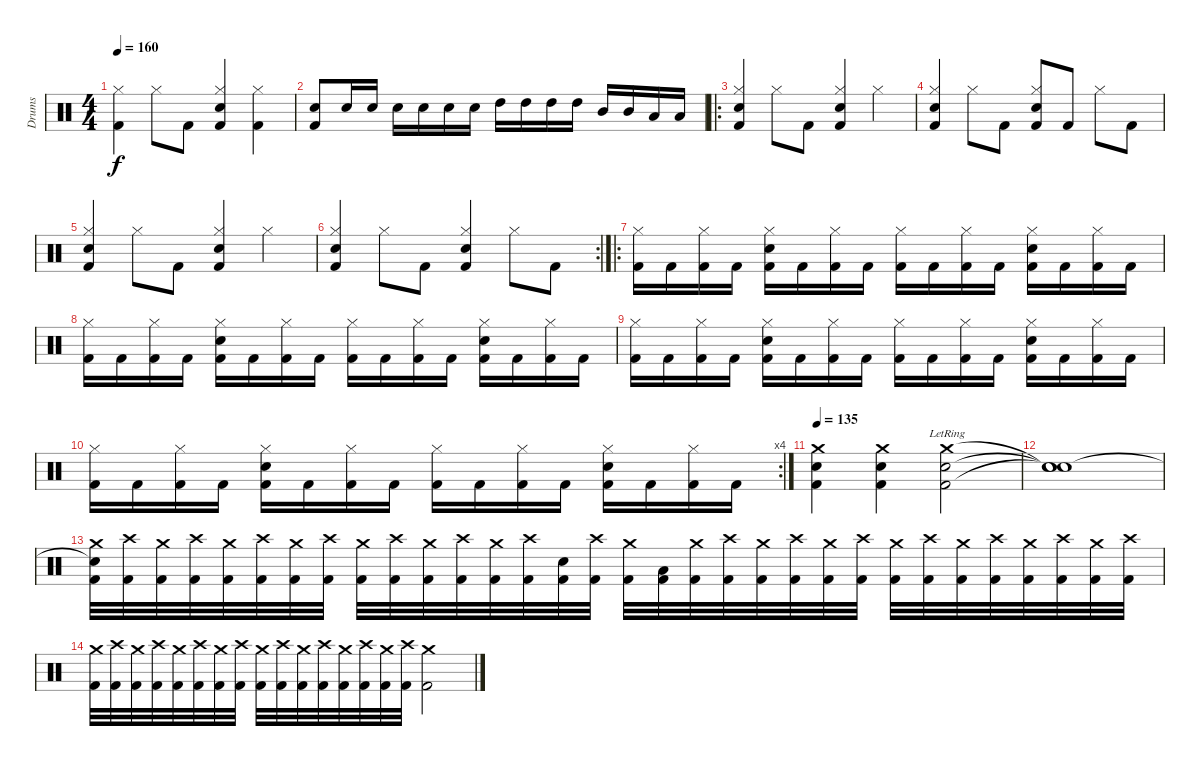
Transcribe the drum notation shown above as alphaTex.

\track ("Drums" "Drums") {instrument percussion}
\staff {score}
\articulation defaults
\ts (4 4)
\tempo 160
\clef neutral
\ks c
("Kick (hit) 2" "Hi-Hat (closed)").4{dy f} "Hi-Hat (closed)".8 "Kick (hit) 2".8 ("Kick (hit) 2" "Snare (hit) 2" "Hi-Hat (closed)").4 ("Kick (hit) 2" "Hi-Hat (closed)").4 |
("Kick (hit) 2" "Snare (hit) 2").8 "Snare (hit) 2".16 "Snare (hit) 2".16 "Snare (hit) 2".16 "Snare (hit) 2".16 "Snare (hit) 2".16 "Snare (hit) 2".16 "High Tom (hit)".16 "High Tom (hit)".16 "High Tom (hit)".16 "High Tom (hit)".16 "Mid Tom (hit)".16 "Mid Tom (hit)".16 "Low Tom (hit)".16 "Low Tom (hit)".16 |
\ro
("Kick (hit) 2" "Snare (hit) 2" "Hi-Hat (closed)").4 "Hi-Hat (closed)".8 "Kick (hit) 2".8 ("Kick (hit) 2" "Snare (hit) 2" "Hi-Hat (closed)").4 "Hi-Hat (closed)".4 |
("Kick (hit) 2" "Snare (hit) 2" "Hi-Hat (closed)").4 "Hi-Hat (closed)".8 "Kick (hit) 2".8 ("Kick (hit) 2" "Snare (hit) 2" "Hi-Hat (closed)").8 "Kick (hit) 2".8 "Hi-Hat (closed)".8 "Kick (hit) 2".8 |
("Kick (hit) 2" "Snare (hit) 2" "Hi-Hat (closed)").4 "Hi-Hat (closed)".8 "Kick (hit) 2".8 ("Kick (hit) 2" "Snare (hit) 2" "Hi-Hat (closed)").4 "Hi-Hat (closed)".4 |
\rc 2
("Kick (hit) 2" "Snare (hit) 2" "Hi-Hat (closed)").4 "Hi-Hat (closed)".8 "Kick (hit) 2".8 ("Kick (hit) 2" "Snare (hit) 2" "Hi-Hat (closed)").4 "Hi-Hat (closed)".8 "Kick (hit) 2".8 |
\ro
("Kick (hit) 2" "Hi-Hat (closed)").16 "Kick (hit) 2".16 ("Kick (hit) 2" "Hi-Hat (closed)").16 "Kick (hit) 2".16 ("Kick (hit) 2" "Snare (hit) 2" "Hi-Hat (closed)").16 "Kick (hit) 2".16 ("Kick (hit) 2" "Hi-Hat (closed)").16 "Kick (hit) 2".16 ("Kick (hit) 2" "Hi-Hat (closed)").16 "Kick (hit) 2".16 ("Kick (hit) 2" "Hi-Hat (closed)").16 "Kick (hit) 2".16 ("Kick (hit) 2" "Snare (hit) 2" "Hi-Hat (closed)").16 "Kick (hit) 2".16 ("Kick (hit) 2" "Hi-Hat (closed)").16 "Kick (hit) 2".16 |
("Kick (hit) 2" "Hi-Hat (closed)").16 "Kick (hit) 2".16 ("Kick (hit) 2" "Hi-Hat (closed)").16 "Kick (hit) 2".16 ("Kick (hit) 2" "Snare (hit) 2" "Hi-Hat (closed)").16 "Kick (hit) 2".16 ("Kick (hit) 2" "Hi-Hat (closed)").16 "Kick (hit) 2".16 ("Kick (hit) 2" "Hi-Hat (closed)").16 "Kick (hit) 2".16 ("Kick (hit) 2" "Hi-Hat (closed)").16 "Kick (hit) 2".16 ("Kick (hit) 2" "Snare (hit) 2" "Hi-Hat (closed)").16 "Kick (hit) 2".16 ("Kick (hit) 2" "Hi-Hat (closed)").16 "Kick (hit) 2".16 |
("Kick (hit) 2" "Hi-Hat (closed)").16 "Kick (hit) 2".16 ("Kick (hit) 2" "Hi-Hat (closed)").16 "Kick (hit) 2".16 ("Kick (hit) 2" "Snare (hit) 2" "Hi-Hat (closed)").16 "Kick (hit) 2".16 ("Kick (hit) 2" "Hi-Hat (closed)").16 "Kick (hit) 2".16 ("Kick (hit) 2" "Hi-Hat (closed)").16 "Kick (hit) 2".16 ("Kick (hit) 2" "Hi-Hat (closed)").16 "Kick (hit) 2".16 ("Kick (hit) 2" "Snare (hit) 2" "Hi-Hat (closed)").16 "Kick (hit) 2".16 ("Kick (hit) 2" "Hi-Hat (closed)").16 "Kick (hit) 2".16 |
\rc 4
("Kick (hit) 2" "Hi-Hat (closed)").16 "Kick (hit) 2".16 ("Kick (hit) 2" "Hi-Hat (closed)").16 "Kick (hit) 2".16 ("Kick (hit) 2" "Snare (hit) 2" "Hi-Hat (closed)").16 "Kick (hit) 2".16 ("Kick (hit) 2" "Hi-Hat (closed)").16 "Kick (hit) 2".16 ("Kick (hit) 2" "Hi-Hat (closed)").16 "Kick (hit) 2".16 ("Kick (hit) 2" "Hi-Hat (closed)").16 "Kick (hit) 2".16 ("Kick (hit) 2" "Snare (hit) 2" "Hi-Hat (closed)").16 "Kick (hit) 2".16 ("Kick (hit) 2" "Hi-Hat (closed)").16 "Kick (hit) 2".16 |
\tempo 135
("Kick (hit) 2" "Snare (hit) 2" "Crash medium (hit)").4 ("Kick (hit) 2" "Snare (hit) 2" "Crash medium (hit)").4 ("Kick (hit) 2"{lr} "Snare (hit) 2"{lr} "Crash medium (hit)"{lr}).2 |
("Snare (hit)"{t} "Snare (hit)"{t} "Snare (hit)"{t}).1 |
("Kick (hit) 2" "Snare (hit)"{t} "Crash medium (hit)").32 ("Kick (hit) 2" "Crash high (hit)").32 ("Kick (hit) 2" "Crash medium (hit)").32 ("Kick (hit) 2" "Crash high (hit)").32 ("Kick (hit) 2" "Crash medium (hit)").32 ("Kick (hit) 2" "Crash high (hit)").32 ("Kick (hit) 2" "Crash medium (hit)").32 ("Kick (hit) 2" "Crash high (hit)").32 ("Kick (hit) 2" "Crash medium (hit)").32 ("Kick (hit) 2" "Crash high (hit)").32 ("Kick (hit) 2" "Crash medium (hit)").32 ("Kick (hit) 2" "Crash high (hit)").32 ("Kick (hit) 2" "Crash medium (hit)").32 ("Kick (hit) 2" "Crash high (hit)").32 ("Kick (hit) 2" "Snare (hit)").32 ("Kick (hit) 2" "Crash high (hit)").32 ("Kick (hit) 2" "Crash medium (hit)").32 ("Kick (hit) 2" "Low Tom (hit)").32 ("Kick (hit) 2" "Crash medium (hit)").32 ("Kick (hit) 2" "Crash high (hit)").32 ("Kick (hit) 2" "Crash medium (hit)").32 ("Kick (hit) 2" "Crash high (hit)").32 ("Kick (hit) 2" "Crash medium (hit)").32 ("Kick (hit) 2" "Crash high (hit)").32 ("Kick (hit) 2" "Crash medium (hit)").32 ("Kick (hit) 2" "Crash high (hit)").32 ("Kick (hit) 2" "Crash medium (hit)").32 ("Kick (hit) 2" "Crash high (hit)").32 ("Kick (hit) 2" "Crash medium (hit)").32 ("Kick (hit) 2" "Crash high (hit)").32 ("Kick (hit) 2" "Crash medium (hit)").32 ("Kick (hit) 2" "Crash high (hit)").32 |
("Kick (hit) 2" "Crash medium (hit)").32 ("Kick (hit) 2" "Crash high (hit)").32 ("Kick (hit) 2" "Crash medium (hit)").32 ("Kick (hit) 2" "Crash high (hit)").32 ("Kick (hit) 2" "Crash medium (hit)").32 ("Kick (hit) 2" "Crash high (hit)").32 ("Kick (hit) 2" "Crash medium (hit)").32 ("Kick (hit) 2" "Crash high (hit)").32 ("Kick (hit) 2" "Crash medium (hit)").32 ("Kick (hit) 2" "Crash high (hit)").32 ("Kick (hit) 2" "Crash medium (hit)").32 ("Kick (hit) 2" "Crash high (hit)").32 ("Kick (hit) 2" "Crash medium (hit)").32 ("Kick (hit) 2" "Crash high (hit)").32 ("Kick (hit) 2" "Crash medium (hit)").32 ("Kick (hit) 2" "Crash high (hit)").32 ("Kick (hit) 2" "Crash medium (hit)").2
